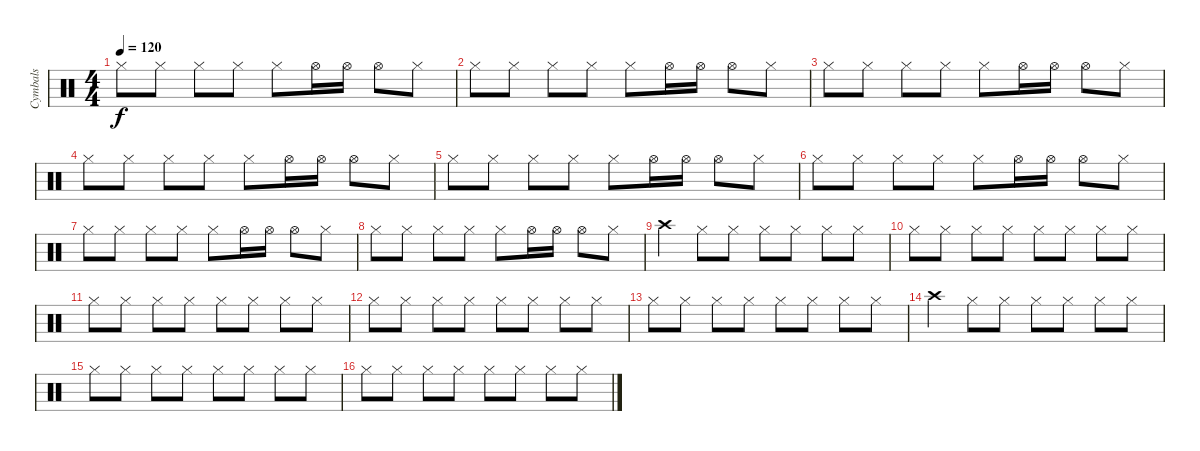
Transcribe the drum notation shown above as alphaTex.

\track ("Cymbals" "Cymbals") {instrument percussion}
\staff {score}
\articulation defaults
\ts (4 4)
\tempo 120
\clef neutral
\ks c "Hi-Hat (closed)".8{dy f} "Hi-Hat (closed)".8 "Hi-Hat (closed)".8 "Hi-Hat (closed)".8 "Hi-Hat (closed)".8 "Hi-Hat (open)".16 "Hi-Hat (open)".16 "Hi-Hat (open)".8 "Hi-Hat (closed)".8
|
"Hi-Hat (closed)".8 "Hi-Hat (closed)".8 "Hi-Hat (closed)".8 "Hi-Hat (closed)".8 "Hi-Hat (closed)".8 "Hi-Hat (open)".16 "Hi-Hat (open)".16 "Hi-Hat (open)".8 "Hi-Hat (closed)".8 |
"Hi-Hat (closed)".8 "Hi-Hat (closed)".8 "Hi-Hat (closed)".8 "Hi-Hat (closed)".8 "Hi-Hat (closed)".8 "Hi-Hat (open)".16 "Hi-Hat (open)".16 "Hi-Hat (open)".8 "Hi-Hat (closed)".8 |
"Hi-Hat (closed)".8 "Hi-Hat (closed)".8 "Hi-Hat (closed)".8 "Hi-Hat (closed)".8 "Hi-Hat (closed)".8 "Hi-Hat (open)".16 "Hi-Hat (open)".16 "Hi-Hat (open)".8 "Hi-Hat (closed)".8 |
"Hi-Hat (closed)".8 "Hi-Hat (closed)".8 "Hi-Hat (closed)".8 "Hi-Hat (closed)".8 "Hi-Hat (closed)".8 "Hi-Hat (open)".16 "Hi-Hat (open)".16 "Hi-Hat (open)".8 "Hi-Hat (closed)".8 |
"Hi-Hat (closed)".8 "Hi-Hat (closed)".8 "Hi-Hat (closed)".8 "Hi-Hat (closed)".8 "Hi-Hat (closed)".8 "Hi-Hat (open)".16 "Hi-Hat (open)".16 "Hi-Hat (open)".8 "Hi-Hat (closed)".8 |
"Hi-Hat (closed)".8 "Hi-Hat (closed)".8 "Hi-Hat (closed)".8 "Hi-Hat (closed)".8 "Hi-Hat (closed)".8 "Hi-Hat (open)".16 "Hi-Hat (open)".16 "Hi-Hat (open)".8 "Hi-Hat (closed)".8 |
"Hi-Hat (closed)".8 "Hi-Hat (closed)".8 "Hi-Hat (closed)".8 "Hi-Hat (closed)".8 "Hi-Hat (closed)".8 "Hi-Hat (open)".16 "Hi-Hat (open)".16 "Hi-Hat (open)".8 "Hi-Hat (closed)".8 |
"Crash high (hit)".4 "Hi-Hat (closed)".8 "Hi-Hat (closed)".8 "Hi-Hat (closed)".8 "Hi-Hat (closed)".8 "Hi-Hat (closed)".8 "Hi-Hat (closed)".8 |
"Hi-Hat (closed)".8 "Hi-Hat (closed)".8 "Hi-Hat (closed)".8 "Hi-Hat (closed)".8 "Hi-Hat (closed)".8 "Hi-Hat (closed)".8 "Hi-Hat (closed)".8 "Hi-Hat (closed)".8 |
"Hi-Hat (closed)".8 "Hi-Hat (closed)".8 "Hi-Hat (closed)".8 "Hi-Hat (closed)".8 "Hi-Hat (closed)".8 "Hi-Hat (closed)".8 "Hi-Hat (closed)".8 "Hi-Hat (closed)".8 |
"Hi-Hat (closed)".8 "Hi-Hat (closed)".8 "Hi-Hat (closed)".8 "Hi-Hat (closed)".8 "Hi-Hat (closed)".8 "Hi-Hat (closed)".8 "Hi-Hat (closed)".8 "Hi-Hat (closed)".8 |
"Hi-Hat (closed)".8 "Hi-Hat (closed)".8 "Hi-Hat (closed)".8 "Hi-Hat (closed)".8 "Hi-Hat (closed)".8 "Hi-Hat (closed)".8 "Hi-Hat (closed)".8 "Hi-Hat (closed)".8 |
"Crash high (hit)".4 "Hi-Hat (closed)".8 "Hi-Hat (closed)".8 "Hi-Hat (closed)".8 "Hi-Hat (closed)".8 "Hi-Hat (closed)".8 "Hi-Hat (closed)".8 |
"Hi-Hat (closed)".8 "Hi-Hat (closed)".8 "Hi-Hat (closed)".8 "Hi-Hat (closed)".8 "Hi-Hat (closed)".8 "Hi-Hat (closed)".8 "Hi-Hat (closed)".8 "Hi-Hat (closed)".8 |
"Hi-Hat (closed)".8 "Hi-Hat (closed)".8 "Hi-Hat (closed)".8 "Hi-Hat (closed)".8 "Hi-Hat (closed)".8 "Hi-Hat (closed)".8 "Hi-Hat (closed)".8 "Hi-Hat (closed)".8
